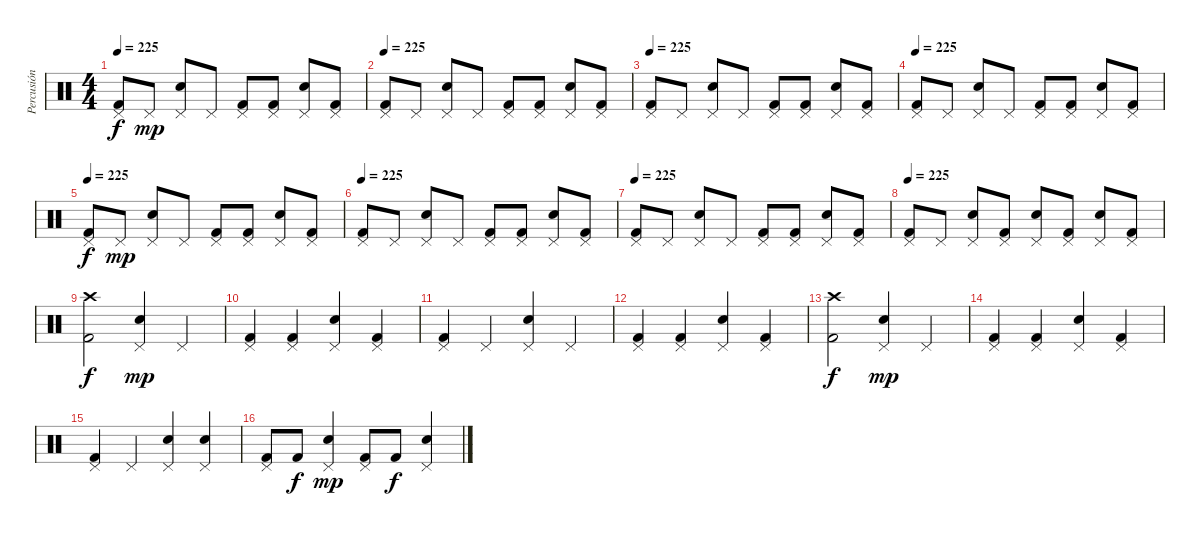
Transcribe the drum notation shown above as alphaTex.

\track ("Percusión" "Percusión") {instrument percussion}
\staff {score}
\articulation defaults
\ts (4 4)
\tempo 225
\clef neutral
\ks c
("Pedal Hi-Hat (hit)" "Kick (hit) 2").8{dy f} "Pedal Hi-Hat (hit)".8{dy mp} ("Pedal Hi-Hat (hit)" "Electric Snare (hit)").8 "Pedal Hi-Hat (hit)".8 ("Pedal Hi-Hat (hit)" "Kick (hit) 2").8 ("Pedal Hi-Hat (hit)" "Kick (hit) 2").8 ("Pedal Hi-Hat (hit)" "Electric Snare (hit)").8 ("Pedal Hi-Hat (hit)" "Kick (hit) 2").8 |
\tempo 225
("Pedal Hi-Hat (hit)" "Kick (hit) 2").8 "Pedal Hi-Hat (hit)".8 ("Pedal Hi-Hat (hit)" "Electric Snare (hit)").8 "Pedal Hi-Hat (hit)".8 ("Pedal Hi-Hat (hit)" "Kick (hit) 2").8 ("Pedal Hi-Hat (hit)" "Kick (hit) 2").8 ("Pedal Hi-Hat (hit)" "Electric Snare (hit)").8 ("Pedal Hi-Hat (hit)" "Kick (hit) 2").8 |
\tempo 225
("Pedal Hi-Hat (hit)" "Kick (hit) 2").8 "Pedal Hi-Hat (hit)".8 ("Pedal Hi-Hat (hit)" "Electric Snare (hit)").8 "Pedal Hi-Hat (hit)".8 ("Pedal Hi-Hat (hit)" "Kick (hit) 2").8 ("Pedal Hi-Hat (hit)" "Kick (hit) 2").8 ("Pedal Hi-Hat (hit)" "Electric Snare (hit)").8 ("Pedal Hi-Hat (hit)" "Kick (hit) 2").8 |
\tempo 225
("Pedal Hi-Hat (hit)" "Kick (hit) 2").8 "Pedal Hi-Hat (hit)".8 ("Pedal Hi-Hat (hit)" "Electric Snare (hit)").8 "Pedal Hi-Hat (hit)".8 ("Pedal Hi-Hat (hit)" "Kick (hit) 2").8 ("Pedal Hi-Hat (hit)" "Kick (hit) 2").8 ("Pedal Hi-Hat (hit)" "Electric Snare (hit)").8 ("Pedal Hi-Hat (hit)" "Kick (hit) 2").8 |
\tempo 225
("Pedal Hi-Hat (hit)" "Kick (hit) 2").8{dy f} "Pedal Hi-Hat (hit)".8{dy mp} ("Pedal Hi-Hat (hit)" "Electric Snare (hit)").8 "Pedal Hi-Hat (hit)".8 ("Pedal Hi-Hat (hit)" "Kick (hit) 2").8 ("Pedal Hi-Hat (hit)" "Kick (hit) 2").8 ("Pedal Hi-Hat (hit)" "Electric Snare (hit)").8 ("Pedal Hi-Hat (hit)" "Kick (hit) 2").8 |
\tempo 225
("Pedal Hi-Hat (hit)" "Kick (hit) 2").8 "Pedal Hi-Hat (hit)".8 ("Pedal Hi-Hat (hit)" "Electric Snare (hit)").8 "Pedal Hi-Hat (hit)".8 ("Pedal Hi-Hat (hit)" "Kick (hit) 2").8 ("Pedal Hi-Hat (hit)" "Kick (hit) 2").8 ("Pedal Hi-Hat (hit)" "Electric Snare (hit)").8 ("Pedal Hi-Hat (hit)" "Kick (hit) 2").8 |
\tempo 225
("Pedal Hi-Hat (hit)" "Kick (hit) 2").8 "Pedal Hi-Hat (hit)".8 ("Pedal Hi-Hat (hit)" "Electric Snare (hit)").8 "Pedal Hi-Hat (hit)".8 ("Pedal Hi-Hat (hit)" "Kick (hit) 2").8 ("Pedal Hi-Hat (hit)" "Kick (hit) 2").8 ("Pedal Hi-Hat (hit)" "Electric Snare (hit)").8 ("Pedal Hi-Hat (hit)" "Kick (hit) 2").8 |
\tempo 225
("Pedal Hi-Hat (hit)" "Kick (hit) 2").8 "Pedal Hi-Hat (hit)".8 ("Pedal Hi-Hat (hit)" "Electric Snare (hit)").8 ("Pedal Hi-Hat (hit)" "Kick (hit) 2").8 ("Pedal Hi-Hat (hit)" "Electric Snare (hit)").8 ("Pedal Hi-Hat (hit)" "Kick (hit) 2").8 ("Pedal Hi-Hat (hit)" "Electric Snare (hit)").8 ("Pedal Hi-Hat (hit)" "Kick (hit) 2").8 |
("Crash high (hit)" "Kick (hit) 2").2{dy f} ("Pedal Hi-Hat (hit)" "Electric Snare (hit)").4{dy mp} "Pedal Hi-Hat (hit)".4 |
("Pedal Hi-Hat (hit)" "Kick (hit) 2").4 ("Pedal Hi-Hat (hit)" "Kick (hit) 2").4 ("Pedal Hi-Hat (hit)" "Electric Snare (hit)").4 ("Pedal Hi-Hat (hit)" "Kick (hit) 2").4 |
("Pedal Hi-Hat (hit)" "Kick (hit) 2").4 "Pedal Hi-Hat (hit)".4 ("Pedal Hi-Hat (hit)" "Electric Snare (hit)").4 "Pedal Hi-Hat (hit)".4 |
("Pedal Hi-Hat (hit)" "Kick (hit) 2").4 ("Pedal Hi-Hat (hit)" "Kick (hit) 2").4 ("Pedal Hi-Hat (hit)" "Electric Snare (hit)").4 ("Pedal Hi-Hat (hit)" "Kick (hit) 2").4 |
("Crash high (hit)" "Kick (hit) 2").2{dy f} ("Pedal Hi-Hat (hit)" "Electric Snare (hit)").4{dy mp} "Pedal Hi-Hat (hit)".4 |
("Pedal Hi-Hat (hit)" "Kick (hit) 2").4 ("Pedal Hi-Hat (hit)" "Kick (hit) 2").4 ("Pedal Hi-Hat (hit)" "Electric Snare (hit)").4 ("Pedal Hi-Hat (hit)" "Kick (hit) 2").4 |
("Pedal Hi-Hat (hit)" "Kick (hit) 2").4 "Pedal Hi-Hat (hit)".4 ("Pedal Hi-Hat (hit)" "Electric Snare (hit)").4 ("Pedal Hi-Hat (hit)" "Electric Snare (hit)").4 |
("Pedal Hi-Hat (hit)" "Kick (hit) 2").8 "Kick (hit) 2".8{dy f} ("Pedal Hi-Hat (hit)" "Electric Snare (hit)").4{dy mp} ("Pedal Hi-Hat (hit)" "Kick (hit) 2").8 "Kick (hit) 2".8{dy f} ("Pedal Hi-Hat (hit)" "Electric Snare (hit)").4
